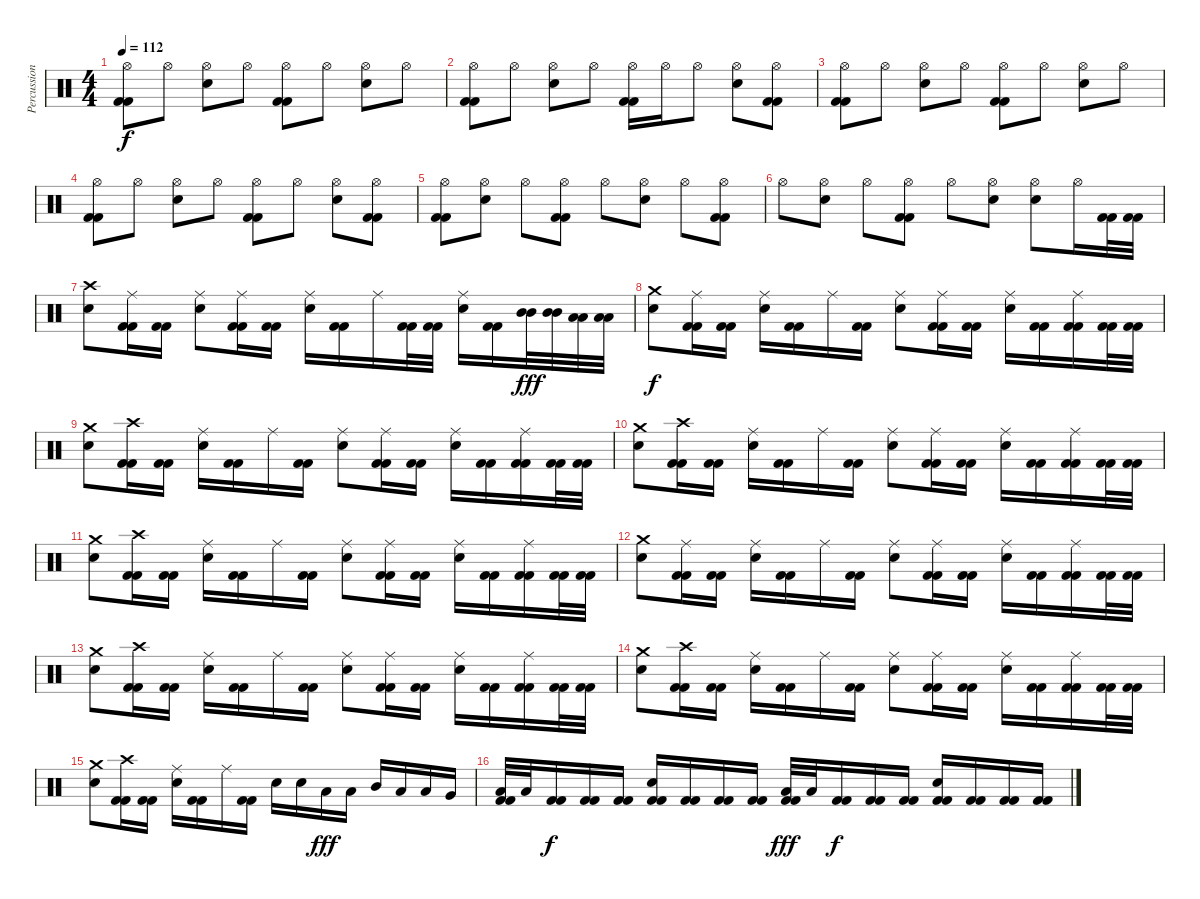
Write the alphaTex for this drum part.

\track ("Percussion" "Percussion") {instrument percussion}
\staff {score}
\articulation defaults
\ts (4 4)
\tempo 112
\clef neutral
\ks c
("Kick (hit) 2" "Kick (hit) 2" "Hi-Hat (open)").8{dy f} "Hi-Hat (open)".8 ("Electric Snare (hit)" "Hi-Hat (open)").8 "Hi-Hat (open)".8 ("Kick (hit) 2" "Kick (hit) 2" "Hi-Hat (open)").8 "Hi-Hat (open)".8 ("Electric Snare (hit)" "Hi-Hat (open)").8 "Hi-Hat (open)".8 |
("Kick (hit) 2" "Kick (hit) 2" "Hi-Hat (open)").8 "Hi-Hat (open)".8 ("Electric Snare (hit)" "Hi-Hat (open)").8 "Hi-Hat (open)".8 ("Kick (hit) 2" "Kick (hit) 2" "Hi-Hat (open)").16 "Hi-Hat (open)".16 "Hi-Hat (open)".8 ("Electric Snare (hit)" "Hi-Hat (open)").8 ("Kick (hit) 2" "Kick (hit) 2" "Hi-Hat (open)").8 |
("Kick (hit) 2" "Kick (hit) 2" "Hi-Hat (open)").8 "Hi-Hat (open)".8 ("Electric Snare (hit)" "Hi-Hat (open)").8 "Hi-Hat (open)".8 ("Kick (hit) 2" "Kick (hit) 2" "Hi-Hat (open)").8 "Hi-Hat (open)".8 ("Electric Snare (hit)" "Hi-Hat (open)").8 "Hi-Hat (open)".8 |
("Kick (hit) 2" "Kick (hit) 2" "Hi-Hat (open)").8 "Hi-Hat (open)".8 ("Electric Snare (hit)" "Hi-Hat (open)").8 "Hi-Hat (open)".8 ("Kick (hit) 2" "Kick (hit) 2" "Hi-Hat (open)").8 "Hi-Hat (open)".8 ("Electric Snare (hit)" "Hi-Hat (open)").8 ("Kick (hit) 2" "Kick (hit) 2" "Hi-Hat (open)").8 |
("Kick (hit) 2" "Kick (hit) 2" "Hi-Hat (open)").8 ("Electric Snare (hit)" "Hi-Hat (open)").8 "Hi-Hat (open)".8 ("Kick (hit) 2" "Kick (hit) 2" "Hi-Hat (open)").8 "Hi-Hat (open)".8 ("Electric Snare (hit)" "Hi-Hat (open)").8 "Hi-Hat (open)".8 ("Kick (hit) 2" "Kick (hit) 2" "Hi-Hat (open)").8 |
"Hi-Hat (open)".8 ("Electric Snare (hit)" "Hi-Hat (open)").8 "Hi-Hat (open)".8 ("Kick (hit) 2" "Kick (hit) 2" "Hi-Hat (open)").8 "Hi-Hat (open)".8 ("Electric Snare (hit)" "Hi-Hat (open)").8 ("Electric Snare (hit)" "Hi-Hat (open)").8 "Hi-Hat (open)".16 ("Kick (hit) 2" "Kick (hit) 2").32 ("Kick (hit) 2" "Kick (hit) 2").32 |
("Electric Snare (hit)" "Crash high (hit)").8 ("Kick (hit) 2" "Kick (hit) 2" "Ride (middle)").16 ("Kick (hit) 2" "Kick (hit) 2").16 ("Ride (middle)" "Electric Snare (hit)").8 ("Kick (hit) 2" "Kick (hit) 2" "Ride (middle)").16 ("Kick (hit) 2" "Kick (hit) 2").16 ("Ride (middle)" "Electric Snare (hit)").16 ("Kick (hit) 2" "Kick (hit) 2").16 "Ride (middle)".16 ("Kick (hit) 2" "Kick (hit) 2").32 ("Kick (hit) 2" "Kick (hit) 2").32 ("Ride (middle)" "Electric Snare (hit)").16 ("Kick (hit) 2" "Kick (hit) 2").16 ("Mid Tom (hit)" "Mid Tom (hit)").32{dy fff} ("Mid Tom (hit)" "Mid Tom (hit)").32 ("Low Tom (hit)" "Low Tom (hit)").32 ("Low Tom (hit)" "Low Tom (hit)").32 |
("Electric Snare (hit)" "Crash medium (hit)").8{dy f} ("Ride (middle)" "Kick (hit) 2" "Kick (hit) 2").16 ("Kick (hit) 2" "Kick (hit) 2").16 ("Ride (middle)" "Electric Snare (hit)").16 ("Kick (hit) 2" "Kick (hit) 2").16 "Ride (middle)".16 ("Kick (hit) 2" "Kick (hit) 2").16 ("Ride (middle)" "Electric Snare (hit)").8 ("Ride (middle)" "Kick (hit) 2" "Kick (hit) 2").16 ("Kick (hit) 2" "Kick (hit) 2").16 ("Ride (middle)" "Electric Snare (hit)").16 ("Kick (hit) 2" "Kick (hit) 2").16 ("Ride (middle)" "Kick (hit) 2" "Kick (hit) 2").16 ("Kick (hit) 2" "Kick (hit) 2").32 ("Kick (hit) 2" "Kick (hit) 2").32 |
("Electric Snare (hit)" "Crash medium (hit)").8 ("Crash high (hit)" "Kick (hit) 2" "Kick (hit) 2").16 ("Kick (hit) 2" "Kick (hit) 2").16 ("Ride (middle)" "Electric Snare (hit)").16 ("Kick (hit) 2" "Kick (hit) 2").16 "Ride (middle)".16 ("Kick (hit) 2" "Kick (hit) 2").16 ("Ride (middle)" "Electric Snare (hit)").8 ("Ride (middle)" "Kick (hit) 2" "Kick (hit) 2").16 ("Kick (hit) 2" "Kick (hit) 2").16 ("Ride (middle)" "Electric Snare (hit)").16 ("Kick (hit) 2" "Kick (hit) 2").16 ("Ride (middle)" "Kick (hit) 2" "Kick (hit) 2").16 ("Kick (hit) 2" "Kick (hit) 2").32 ("Kick (hit) 2" "Kick (hit) 2").32 |
("Electric Snare (hit)" "Crash medium (hit)").8 ("Crash high (hit)" "Kick (hit) 2" "Kick (hit) 2").16 ("Kick (hit) 2" "Kick (hit) 2").16 ("Ride (middle)" "Electric Snare (hit)").16 ("Kick (hit) 2" "Kick (hit) 2").16 "Ride (middle)".16 ("Kick (hit) 2" "Kick (hit) 2").16 ("Ride (middle)" "Electric Snare (hit)").8 ("Ride (middle)" "Kick (hit) 2" "Kick (hit) 2").16 ("Kick (hit) 2" "Kick (hit) 2").16 ("Ride (middle)" "Electric Snare (hit)").16 ("Kick (hit) 2" "Kick (hit) 2").16 ("Ride (middle)" "Kick (hit) 2" "Kick (hit) 2").16 ("Kick (hit) 2" "Kick (hit) 2").32 ("Kick (hit) 2" "Kick (hit) 2").32 |
("Electric Snare (hit)" "Crash medium (hit)").8 ("Crash high (hit)" "Kick (hit) 2" "Kick (hit) 2").16 ("Kick (hit) 2" "Kick (hit) 2").16 ("Ride (middle)" "Electric Snare (hit)").16 ("Kick (hit) 2" "Kick (hit) 2").16 "Ride (middle)".16 ("Kick (hit) 2" "Kick (hit) 2").16 ("Ride (middle)" "Electric Snare (hit)").8 ("Ride (middle)" "Kick (hit) 2" "Kick (hit) 2").16 ("Kick (hit) 2" "Kick (hit) 2").16 ("Ride (middle)" "Electric Snare (hit)").16 ("Kick (hit) 2" "Kick (hit) 2").16 ("Ride (middle)" "Kick (hit) 2" "Kick (hit) 2").16 ("Kick (hit) 2" "Kick (hit) 2").32 ("Kick (hit) 2" "Kick (hit) 2").32 |
("Electric Snare (hit)" "Crash medium (hit)").8 ("Ride (middle)" "Kick (hit) 2" "Kick (hit) 2").16 ("Kick (hit) 2" "Kick (hit) 2").16 ("Ride (middle)" "Electric Snare (hit)").16 ("Kick (hit) 2" "Kick (hit) 2").16 "Ride (middle)".16 ("Kick (hit) 2" "Kick (hit) 2").16 ("Ride (middle)" "Electric Snare (hit)").8 ("Ride (middle)" "Kick (hit) 2" "Kick (hit) 2").16 ("Kick (hit) 2" "Kick (hit) 2").16 ("Ride (middle)" "Electric Snare (hit)").16 ("Kick (hit) 2" "Kick (hit) 2").16 ("Ride (middle)" "Kick (hit) 2" "Kick (hit) 2").16 ("Kick (hit) 2" "Kick (hit) 2").32 ("Kick (hit) 2" "Kick (hit) 2").32 |
("Electric Snare (hit)" "Crash medium (hit)").8 ("Crash high (hit)" "Kick (hit) 2" "Kick (hit) 2").16 ("Kick (hit) 2" "Kick (hit) 2").16 ("Ride (middle)" "Electric Snare (hit)").16 ("Kick (hit) 2" "Kick (hit) 2").16 "Ride (middle)".16 ("Kick (hit) 2" "Kick (hit) 2").16 ("Ride (middle)" "Electric Snare (hit)").8 ("Ride (middle)" "Kick (hit) 2" "Kick (hit) 2").16 ("Kick (hit) 2" "Kick (hit) 2").16 ("Ride (middle)" "Electric Snare (hit)").16 ("Kick (hit) 2" "Kick (hit) 2").16 ("Ride (middle)" "Kick (hit) 2" "Kick (hit) 2").16 ("Kick (hit) 2" "Kick (hit) 2").32 ("Kick (hit) 2" "Kick (hit) 2").32 |
("Electric Snare (hit)" "Crash medium (hit)").8 ("Crash high (hit)" "Kick (hit) 2" "Kick (hit) 2").16 ("Kick (hit) 2" "Kick (hit) 2").16 ("Ride (middle)" "Electric Snare (hit)").16 ("Kick (hit) 2" "Kick (hit) 2").16 "Ride (middle)".16 ("Kick (hit) 2" "Kick (hit) 2").16 ("Ride (middle)" "Electric Snare (hit)").8 ("Ride (middle)" "Kick (hit) 2" "Kick (hit) 2").16 ("Kick (hit) 2" "Kick (hit) 2").16 ("Ride (middle)" "Electric Snare (hit)").16 ("Kick (hit) 2" "Kick (hit) 2").16 ("Ride (middle)" "Kick (hit) 2" "Kick (hit) 2").16 ("Kick (hit) 2" "Kick (hit) 2").32 ("Kick (hit) 2" "Kick (hit) 2").32 |
("Electric Snare (hit)" "Crash medium (hit)").8 ("Crash high (hit)" "Kick (hit) 2" "Kick (hit) 2").16 ("Kick (hit) 2" "Kick (hit) 2").16 ("Ride (middle)" "Electric Snare (hit)").16 ("Kick (hit) 2" "Kick (hit) 2").16 "Ride (middle)".16 ("Kick (hit) 2" "Kick (hit) 2").16 "Electric Snare (hit)".16 "Electric Snare (hit)".16 "Low Tom (hit)".16{dy fff} "Low Tom (hit)".16 "Mid Tom (hit)".16 "Low Tom (hit)".16 "Low Tom (hit)".16 "Very Low Tom (hit)".16 |
("Kick (hit) 2" "Kick (hit) 2" "Low Tom (hit)").32 "Low Tom (hit)".32 ("Kick (hit) 2" "Kick (hit) 2").16{dy f} ("Kick (hit) 2" "Kick (hit) 2").16 ("Kick (hit) 2" "Kick (hit) 2").16 ("Kick (hit) 2" "Kick (hit) 2" "Electric Snare (hit)").16 ("Kick (hit) 2" "Kick (hit) 2").16 ("Kick (hit) 2" "Kick (hit) 2").16 ("Kick (hit) 2" "Kick (hit) 2").16 ("Kick (hit) 2" "Kick (hit) 2" "Low Tom (hit)").32{dy fff} "Low Tom (hit)".32 ("Kick (hit) 2" "Kick (hit) 2").16{dy f} ("Kick (hit) 2" "Kick (hit) 2").16 ("Kick (hit) 2" "Kick (hit) 2").16 ("Kick (hit) 2" "Kick (hit) 2" "Electric Snare (hit)").16 ("Kick (hit) 2" "Kick (hit) 2").16 ("Kick (hit) 2" "Kick (hit) 2").16 ("Kick (hit) 2" "Kick (hit) 2").16
